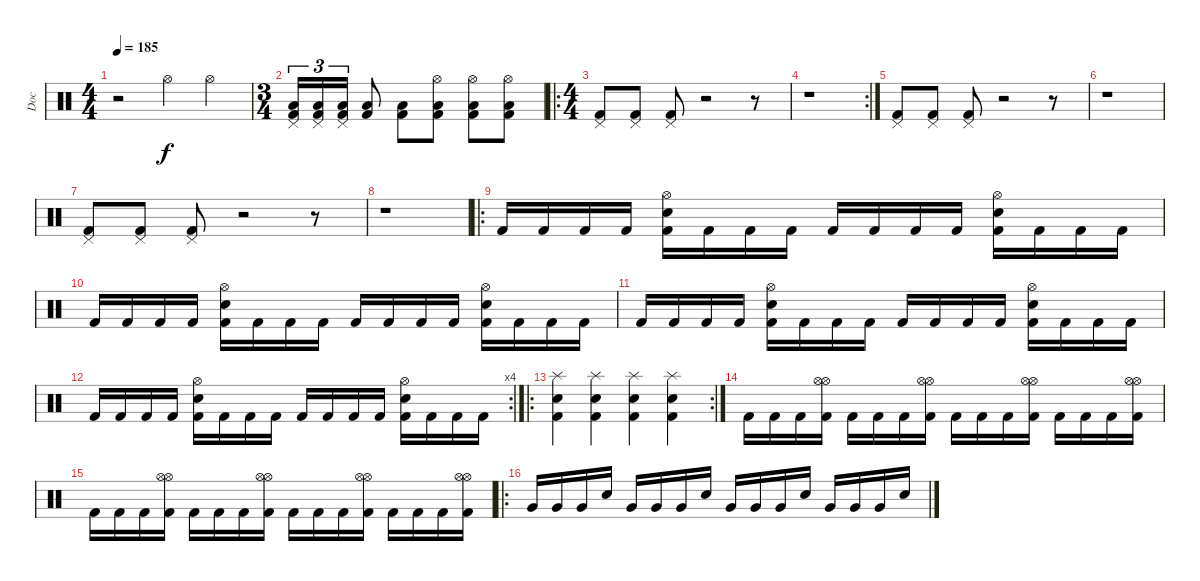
\track ("Doc" "Doc") {instrument percussion}
\staff {score}
\articulation defaults
\ts (4 4)
\tempo 185
\clef neutral
\ks c
r.2{dy f} "Hi-Hat (open)".4 "Hi-Hat (open)".4 |
\ts (3 4)
("Pedal Hi-Hat (hit)" "Low Floor Tom (hit)" "Kick (hit) 2").16{tu (3 2)} ("Pedal Hi-Hat (hit)" "Low Floor Tom (hit)" "Kick (hit) 2").16{tu (3 2)} ("Pedal Hi-Hat (hit)" "Low Floor Tom (hit)" "Kick (hit) 2").16{tu (3 2)} ("Low Floor Tom (hit)" "Kick (hit) 2").8 ("Low Floor Tom (hit)" "Kick (hit) 2").8 ("Kick (hit) 2" "Low Floor Tom (hit)" "Hi-Hat (open)").8 ("Kick (hit) 2" "Low Floor Tom (hit)" "Hi-Hat (open)").8 ("Kick (hit) 2" "Low Floor Tom (hit)" "Hi-Hat (open)").8 |
\ro
\ts (4 4)
("Pedal Hi-Hat (hit)" "Kick (hit) 2").8 ("Pedal Hi-Hat (hit)" "Kick (hit) 2").8 ("Pedal Hi-Hat (hit)" "Kick (hit) 2").8 r.2 r.8 |
\rc 2
r.1 |
("Pedal Hi-Hat (hit)" "Kick (hit) 2").8 ("Pedal Hi-Hat (hit)" "Kick (hit) 2").8 ("Pedal Hi-Hat (hit)" "Kick (hit) 2").8 r.2 r.8 |
r.1 |
("Pedal Hi-Hat (hit)" "Kick (hit) 2").8 ("Pedal Hi-Hat (hit)" "Kick (hit) 2").8 ("Pedal Hi-Hat (hit)" "Kick (hit) 2").8 r.2 r.8 |
r.1 |
\ro "Kick (hit) 2".16 "Kick (hit) 2".16 "Kick (hit) 2".16 "Kick (hit) 2".16
("Hi-Hat (open)" "Snare (hit) 2" "Kick (hit) 2").16 "Kick (hit) 2".16 "Kick (hit) 2".16 "Kick (hit) 2".16 "Kick (hit) 2".16 "Kick (hit) 2".16 "Kick (hit) 2".16 "Kick (hit) 2".16 ("Hi-Hat (open)" "Snare (hit) 2" "Kick (hit) 2").16 "Kick (hit) 2".16 "Kick (hit) 2".16 "Kick (hit) 2".16 |
"Kick (hit) 2".16 "Kick (hit) 2".16 "Kick (hit) 2".16 "Kick (hit) 2".16 ("Hi-Hat (open)" "Snare (hit) 2" "Kick (hit) 2").16 "Kick (hit) 2".16 "Kick (hit) 2".16 "Kick (hit) 2".16 "Kick (hit) 2".16 "Kick (hit) 2".16 "Kick (hit) 2".16 "Kick (hit) 2".16 ("Hi-Hat (open)" "Snare (hit) 2" "Kick (hit) 2").16 "Kick (hit) 2".16 "Kick (hit) 2".16 "Kick (hit) 2".16 |
"Kick (hit) 2".16 "Kick (hit) 2".16 "Kick (hit) 2".16 "Kick (hit) 2".16 ("Hi-Hat (open)" "Snare (hit) 2" "Kick (hit) 2").16 "Kick (hit) 2".16 "Kick (hit) 2".16 "Kick (hit) 2".16 "Kick (hit) 2".16 "Kick (hit) 2".16 "Kick (hit) 2".16 "Kick (hit) 2".16 ("Hi-Hat (open)" "Snare (hit) 2" "Kick (hit) 2").16 "Kick (hit) 2".16 "Kick (hit) 2".16 "Kick (hit) 2".16 |
\rc 4 "Kick (hit) 2".16 "Kick (hit) 2".16 "Kick (hit) 2".16 "Kick (hit) 2".16
("Hi-Hat (open)" "Snare (hit) 2" "Kick (hit) 2").16 "Kick (hit) 2".16 "Kick (hit) 2".16 "Kick (hit) 2".16 "Kick (hit) 2".16 "Kick (hit) 2".16 "Kick (hit) 2".16 "Kick (hit) 2".16 ("Hi-Hat (open)" "Snare (hit) 2" "Kick (hit) 2").16 "Kick (hit) 2".16 "Kick (hit) 2".16 "Kick (hit) 2".16 |
\ro
\rc 2
("Splash (hit)" "Snare (hit) 2" "Kick (hit) 2").4 ("Splash (hit)" "Snare (hit) 2" "Kick (hit) 2").4 ("Splash (hit)" "Snare (hit) 2" "Kick (hit) 2").4 ("Splash (hit)" "Snare (hit) 2" "Kick (hit) 2").4 |
"Kick (hit) 2".16 "Kick (hit) 2".16 "Kick (hit) 2".16 ("Kick (hit) 2" "Hi-Hat (open)" "Hi-Hat (open)").16 "Kick (hit) 2".16 "Kick (hit) 2".16 "Kick (hit) 2".16 ("Kick (hit) 2" "Hi-Hat (open)" "Hi-Hat (open)").16 "Kick (hit) 2".16 "Kick (hit) 2".16 "Kick (hit) 2".16 ("Kick (hit) 2" "Hi-Hat (open)" "Hi-Hat (open)").16 "Kick (hit) 2".16 "Kick (hit) 2".16 "Kick (hit) 2".16 ("Kick (hit) 2" "Hi-Hat (open)" "Hi-Hat (open)").16 |
"Kick (hit) 2".16 "Kick (hit) 2".16 "Kick (hit) 2".16 ("Kick (hit) 2" "Hi-Hat (open)" "Hi-Hat (open)").16 "Kick (hit) 2".16 "Kick (hit) 2".16 "Kick (hit) 2".16 ("Kick (hit) 2" "Hi-Hat (open)" "Hi-Hat (open)").16 "Kick (hit) 2".16 "Kick (hit) 2".16 "Kick (hit) 2".16 ("Kick (hit) 2" "Hi-Hat (open)" "Hi-Hat (open)").16 "Kick (hit) 2".16 "Kick (hit) 2".16 "Kick (hit) 2".16 ("Kick (hit) 2" "Hi-Hat (open)" "Hi-Hat (open)").16 |
\ro "Very Low Tom (hit)".16 "Very Low Tom (hit)".16 "Very Low Tom (hit)".16 "Snare (hit) 2".16 "Very Low Tom (hit)".16 "Very Low Tom (hit)".16 "Very Low Tom (hit)".16 "Snare (hit) 2".16 "Very Low Tom (hit)".16 "Very Low Tom (hit)".16 "Very Low Tom (hit)".16 "Snare (hit) 2".16 "Very Low Tom (hit)".16 "Very Low Tom (hit)".16 "Very Low Tom (hit)".16 "Snare (hit) 2".16
